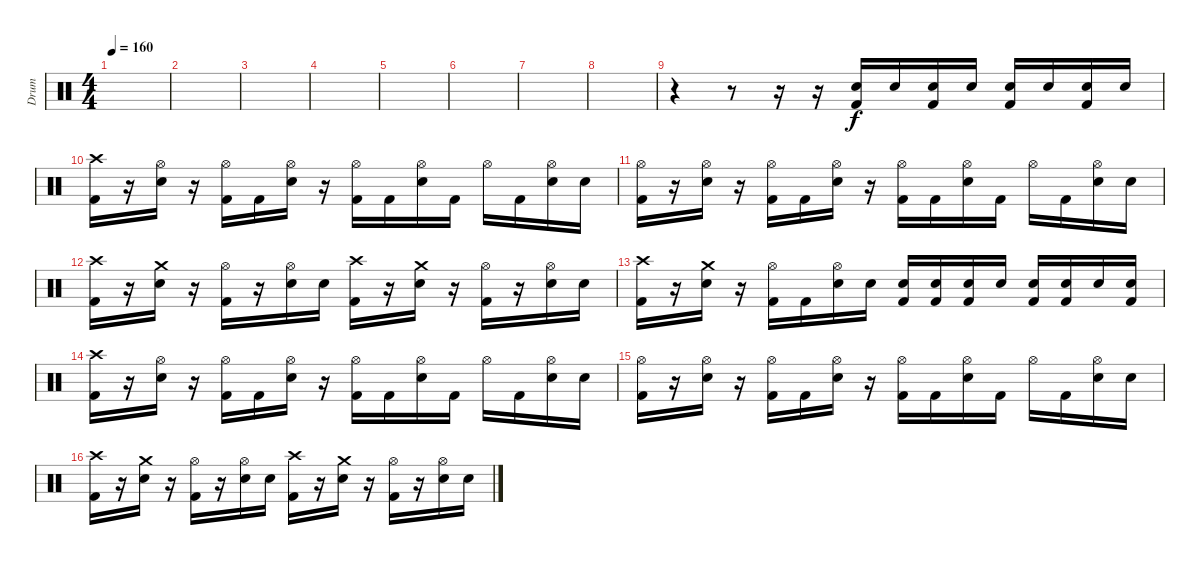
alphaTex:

\track ("Drum" "Drum") {instrument percussion}
\staff {score}
\articulation defaults
\ts (4 4)
\tempo 160
\clef neutral
\ks c
|
|
|
|
|
|
|
|
r.4 r.8 r.16 r.16 ("Electric Snare (hit)" "Kick (hit) 2").16 "Electric Snare (hit)".16 ("Electric Snare (hit)" "Kick (hit) 2").16 "Electric Snare (hit)".16 ("Electric Snare (hit)" "Kick (hit) 2").16 "Electric Snare (hit)".16 ("Electric Snare (hit)" "Kick (hit) 2").16 "Electric Snare (hit)".16 |
("Crash high (hit)" "Kick (hit) 2").16 r.16 ("Hi-Hat (open)" "Electric Snare (hit)").16 r.16 ("Hi-Hat (open)" "Kick (hit) 2").16 "Kick (hit) 2".16 ("Hi-Hat (open)" "Electric Snare (hit)").16 r.16 ("Hi-Hat (open)" "Kick (hit) 2").16 "Kick (hit) 2".16 ("Hi-Hat (open)" "Electric Snare (hit)").16 "Kick (hit) 2".16 "Hi-Hat (open)".16 "Kick (hit) 2".16 ("Hi-Hat (open)" "Electric Snare (hit)").16 "Electric Snare (hit)".16 |
("Hi-Hat (open)" "Kick (hit) 2").16 r.16 ("Hi-Hat (open)" "Electric Snare (hit)").16 r.16 ("Hi-Hat (open)" "Kick (hit) 2").16 "Kick (hit) 2".16 ("Hi-Hat (open)" "Electric Snare (hit)").16 r.16 ("Hi-Hat (open)" "Kick (hit) 2").16 "Kick (hit) 2".16 ("Hi-Hat (open)" "Electric Snare (hit)").16 "Kick (hit) 2".16 "Hi-Hat (open)".16 "Kick (hit) 2".16 ("Hi-Hat (open)" "Electric Snare (hit)").16 "Electric Snare (hit)".16 |
("Crash high (hit)" "Kick (hit) 2").16 r.16 ("Crash medium (hit)" "Electric Snare (hit)").16 r.16 ("Hi-Hat (open)" "Kick (hit) 2").16 r.16 ("Hi-Hat (open)" "Electric Snare (hit)").16 "Electric Snare (hit)".16 ("Crash high (hit)" "Kick (hit) 2").16 r.16 ("Crash medium (hit)" "Electric Snare (hit)").16 r.16 ("Hi-Hat (open)" "Kick (hit) 2").16 r.16 ("Hi-Hat (open)" "Electric Snare (hit)").16 "Electric Snare (hit)".16 |
("Crash high (hit)" "Kick (hit) 2").16 r.16 ("Crash medium (hit)" "Electric Snare (hit)").16 r.16 ("Hi-Hat (open)" "Kick (hit) 2").16 "Kick (hit) 2".16 ("Hi-Hat (open)" "Electric Snare (hit)").16 "Electric Snare (hit)".16 ("Snare (hit)" "Kick (hit) 2").16 ("Electric Snare (hit)" "Kick (hit) 2").16 ("Electric Snare (hit)" "Kick (hit) 2").16 "Electric Snare (hit)".16 ("Electric Snare (hit)" "Kick (hit) 2").16 ("Electric Snare (hit)" "Kick (hit) 2").16 "Electric Snare (hit)".16 ("Electric Snare (hit)" "Kick (hit) 2").16 |
("Crash high (hit)" "Kick (hit) 2").16 r.16 ("Hi-Hat (open)" "Electric Snare (hit)").16 r.16 ("Hi-Hat (open)" "Kick (hit) 2").16 "Kick (hit) 2".16 ("Hi-Hat (open)" "Electric Snare (hit)").16 r.16 ("Hi-Hat (open)" "Kick (hit) 2").16 "Kick (hit) 2".16 ("Hi-Hat (open)" "Electric Snare (hit)").16 "Kick (hit) 2".16 "Hi-Hat (open)".16 "Kick (hit) 2".16 ("Hi-Hat (open)" "Electric Snare (hit)").16 "Electric Snare (hit)".16 |
("Hi-Hat (open)" "Kick (hit) 2").16 r.16 ("Hi-Hat (open)" "Electric Snare (hit)").16 r.16 ("Hi-Hat (open)" "Kick (hit) 2").16 "Kick (hit) 2".16 ("Hi-Hat (open)" "Electric Snare (hit)").16 r.16 ("Hi-Hat (open)" "Kick (hit) 2").16 "Kick (hit) 2".16 ("Hi-Hat (open)" "Electric Snare (hit)").16 "Kick (hit) 2".16 "Hi-Hat (open)".16 "Kick (hit) 2".16 ("Hi-Hat (open)" "Electric Snare (hit)").16 "Electric Snare (hit)".16 |
("Crash high (hit)" "Kick (hit) 2").16 r.16 ("Crash medium (hit)" "Electric Snare (hit)").16 r.16 ("Hi-Hat (open)" "Kick (hit) 2").16 r.16 ("Hi-Hat (open)" "Electric Snare (hit)").16 "Electric Snare (hit)".16 ("Crash high (hit)" "Kick (hit) 2").16 r.16 ("Crash medium (hit)" "Electric Snare (hit)").16 r.16 ("Hi-Hat (open)" "Kick (hit) 2").16 r.16 ("Hi-Hat (open)" "Electric Snare (hit)").16 "Electric Snare (hit)".16
